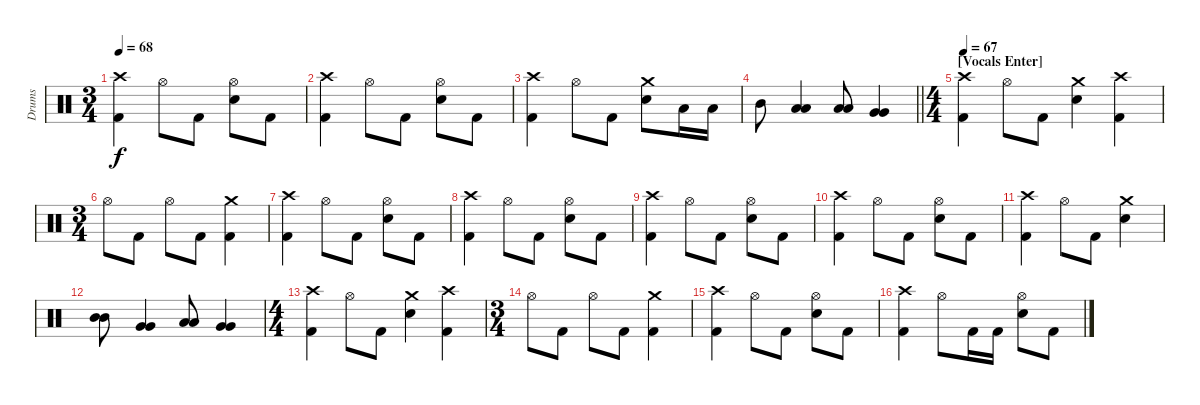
\track ("Drums" "Drums") {instrument percussion}
\staff {score}
\articulation defaults
\ts (3 4)
\tempo 68
\clef neutral
\ks c
("Crash high (hit)" "Kick (hit) 2").4{dy f} "Hi-Hat (open)".8 "Kick (hit) 2".8 ("Hi-Hat (open)" "Electric Snare (hit)").8 "Kick (hit) 2".8 |
("Crash high (hit)" "Kick (hit) 2").4 "Hi-Hat (open)".8 "Kick (hit) 2".8 ("Hi-Hat (open)" "Electric Snare (hit)").8 "Kick (hit) 2".8 |
("Crash high (hit)" "Kick (hit) 2").4 "Hi-Hat (open)".8 "Kick (hit) 2".8 ("Crash medium (hit)" "Electric Snare (hit)").8 "Low Tom (hit)".16 "Low Tom (hit)".16 |
\barLineRight lightlight "Mid Tom (hit)".8
("Low Tom (hit)" "Low Tom (hit)").4 ("Low Tom (hit)" "Low Tom (hit)").8 ("Very Low Tom (hit)" "Very Low Tom (hit)").4 |
\ts (4 4)
\section ("" "[Vocals Enter]")
\tempo 67
("Crash high (hit)" "Kick (hit) 2").4 "Hi-Hat (open)".8 "Kick (hit) 2".8 ("Crash medium (hit)" "Electric Snare (hit)").4 ("Crash high (hit)" "Kick (hit) 2").4 |
\ts (3 4)
"Hi-Hat (open)".8 "Kick (hit) 2".8 "Hi-Hat (open)".8 "Kick (hit) 2".8 ("Crash medium (hit)" "Kick (hit) 2").4 |
("Crash high (hit)" "Kick (hit) 2").4 "Hi-Hat (open)".8 "Kick (hit) 2".8 ("Hi-Hat (open)" "Electric Snare (hit)").8 "Kick (hit) 2".8 |
("Crash high (hit)" "Kick (hit) 2").4 "Hi-Hat (open)".8 "Kick (hit) 2".8 ("Hi-Hat (open)" "Electric Snare (hit)").8 "Kick (hit) 2".8 |
("Crash high (hit)" "Kick (hit) 2").4 "Hi-Hat (open)".8 "Kick (hit) 2".8 ("Hi-Hat (open)" "Electric Snare (hit)").8 "Kick (hit) 2".8 |
("Crash high (hit)" "Kick (hit) 2").4 "Hi-Hat (open)".8 "Kick (hit) 2".8 ("Hi-Hat (open)" "Electric Snare (hit)").8 "Kick (hit) 2".8 |
("Crash high (hit)" "Kick (hit) 2").4 "Hi-Hat (open)".8 "Kick (hit) 2".8 ("Crash medium (hit)" "Electric Snare (hit)").4 |
("Mid Tom (hit)" "Mid Tom (hit)").8 ("Very Low Tom (hit)" "Very Low Tom (hit)").4 ("Low Tom (hit)" "Low Tom (hit)").8 ("Very Low Tom (hit)" "Very Low Tom (hit)").4 |
\ts (4 4)
("Crash high (hit)" "Kick (hit) 2").4 "Hi-Hat (open)".8 "Kick (hit) 2".8 ("Crash medium (hit)" "Electric Snare (hit)").4 ("Crash high (hit)" "Kick (hit) 2").4 |
\ts (3 4)
"Hi-Hat (open)".8 "Kick (hit) 2".8 "Hi-Hat (open)".8 "Kick (hit) 2".8 ("Crash medium (hit)" "Kick (hit) 2").4 |
("Crash high (hit)" "Kick (hit) 2").4 "Hi-Hat (open)".8 "Kick (hit) 2".8 ("Hi-Hat (open)" "Electric Snare (hit)").8 "Kick (hit) 2".8 |
("Crash high (hit)" "Kick (hit) 2").4 "Hi-Hat (open)".8 "Kick (hit) 2".16 "Kick (hit) 2".16 ("Hi-Hat (open)" "Electric Snare (hit)").8 "Kick (hit) 2".8
